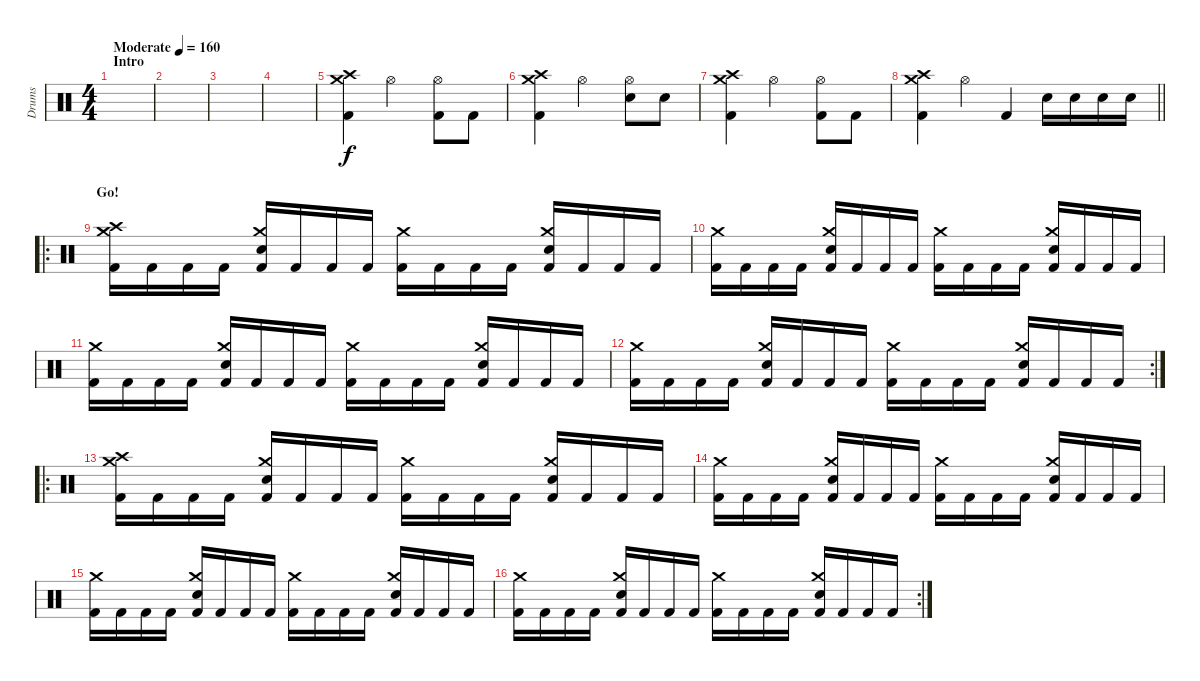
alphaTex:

\track ("Drums" "Drums") {instrument percussion}
\staff {score}
\articulation defaults
\ts (4 4)
\section ("" "Intro")
\tempo (160 "Moderate")
\clef neutral
\ks c
|
|
|
|
("Kick (hit) 2" "Crash high (hit)" "Crash medium (hit)").4 "Hi-Hat (open)".2 ("Kick (hit) 2" "Hi-Hat (open)").8 "Kick (hit) 2".8 |
("Kick (hit) 2" "Crash high (hit)" "Crash medium (hit)").4 "Hi-Hat (open)".2 ("Snare (hit) 2" "Hi-Hat (open)").8 "Snare (hit) 2".8 |
("Kick (hit) 2" "Crash high (hit)" "Crash medium (hit)").4 "Hi-Hat (open)".2 ("Kick (hit) 2" "Hi-Hat (open)").8 "Kick (hit) 2".8 |
\barLineRight lightlight
("Kick (hit) 2" "Crash high (hit)" "Crash medium (hit)").4 "Hi-Hat (open)".4 "Kick (hit) 2".4 "Snare (hit) 2".16 "Snare (hit) 2".16 "Snare (hit) 2".16 "Snare (hit) 2".16 |
\ro
\section ("" "Go!")
("Kick (hit) 2" "Crash high (hit)" "Crash medium (hit)").16 "Kick (hit) 2".16 "Kick (hit) 2".16 "Kick (hit) 2".16 ("Kick (hit) 2" "Snare (hit) 2" "Crash medium (hit)").16 "Kick (hit) 2".16 "Kick (hit) 2".16 "Kick (hit) 2".16 ("Kick (hit) 2" "Crash medium (hit)").16 "Kick (hit) 2".16 "Kick (hit) 2".16 "Kick (hit) 2".16 ("Kick (hit) 2" "Snare (hit) 2" "Crash medium (hit)").16 "Kick (hit) 2".16 "Kick (hit) 2".16 "Kick (hit) 2".16 |
("Kick (hit) 2" "Crash medium (hit)").16 "Kick (hit) 2".16 "Kick (hit) 2".16 "Kick (hit) 2".16 ("Kick (hit) 2" "Snare (hit) 2" "Crash medium (hit)").16 "Kick (hit) 2".16 "Kick (hit) 2".16 "Kick (hit) 2".16 ("Kick (hit) 2" "Crash medium (hit)").16 "Kick (hit) 2".16 "Kick (hit) 2".16 "Kick (hit) 2".16 ("Kick (hit) 2" "Snare (hit) 2" "Crash medium (hit)").16 "Kick (hit) 2".16 "Kick (hit) 2".16 "Kick (hit) 2".16 |
("Kick (hit) 2" "Crash medium (hit)").16 "Kick (hit) 2".16 "Kick (hit) 2".16 "Kick (hit) 2".16 ("Kick (hit) 2" "Snare (hit) 2" "Crash medium (hit)").16 "Kick (hit) 2".16 "Kick (hit) 2".16 "Kick (hit) 2".16 ("Kick (hit) 2" "Crash medium (hit)").16 "Kick (hit) 2".16 "Kick (hit) 2".16 "Kick (hit) 2".16 ("Kick (hit) 2" "Snare (hit) 2" "Crash medium (hit)").16 "Kick (hit) 2".16 "Kick (hit) 2".16 "Kick (hit) 2".16 |
\rc 2
("Kick (hit) 2" "Crash medium (hit)").16 "Kick (hit) 2".16 "Kick (hit) 2".16 "Kick (hit) 2".16 ("Kick (hit) 2" "Snare (hit) 2" "Crash medium (hit)").16 "Kick (hit) 2".16 "Kick (hit) 2".16 "Kick (hit) 2".16 ("Kick (hit) 2" "Crash medium (hit)").16 "Kick (hit) 2".16 "Kick (hit) 2".16 "Kick (hit) 2".16 ("Kick (hit) 2" "Snare (hit) 2" "Crash medium (hit)").16 "Kick (hit) 2".16 "Kick (hit) 2".16 "Kick (hit) 2".16 |
\ro
("Kick (hit) 2" "Crash high (hit)" "Crash medium (hit)").16 "Kick (hit) 2".16 "Kick (hit) 2".16 "Kick (hit) 2".16 ("Kick (hit) 2" "Snare (hit) 2" "Crash medium (hit)").16 "Kick (hit) 2".16 "Kick (hit) 2".16 "Kick (hit) 2".16 ("Kick (hit) 2" "Crash medium (hit)").16 "Kick (hit) 2".16 "Kick (hit) 2".16 "Kick (hit) 2".16 ("Kick (hit) 2" "Snare (hit) 2" "Crash medium (hit)").16 "Kick (hit) 2".16 "Kick (hit) 2".16 "Kick (hit) 2".16 |
("Kick (hit) 2" "Crash medium (hit)").16 "Kick (hit) 2".16 "Kick (hit) 2".16 "Kick (hit) 2".16 ("Kick (hit) 2" "Snare (hit) 2" "Crash medium (hit)").16 "Kick (hit) 2".16 "Kick (hit) 2".16 "Kick (hit) 2".16 ("Kick (hit) 2" "Crash medium (hit)").16 "Kick (hit) 2".16 "Kick (hit) 2".16 "Kick (hit) 2".16 ("Kick (hit) 2" "Snare (hit) 2" "Crash medium (hit)").16 "Kick (hit) 2".16 "Kick (hit) 2".16 "Kick (hit) 2".16 |
("Kick (hit) 2" "Crash medium (hit)").16 "Kick (hit) 2".16 "Kick (hit) 2".16 "Kick (hit) 2".16 ("Kick (hit) 2" "Snare (hit) 2" "Crash medium (hit)").16 "Kick (hit) 2".16 "Kick (hit) 2".16 "Kick (hit) 2".16 ("Kick (hit) 2" "Crash medium (hit)").16 "Kick (hit) 2".16 "Kick (hit) 2".16 "Kick (hit) 2".16 ("Kick (hit) 2" "Snare (hit) 2" "Crash medium (hit)").16 "Kick (hit) 2".16 "Kick (hit) 2".16 "Kick (hit) 2".16 |
\rc 2
("Kick (hit) 2" "Crash medium (hit)").16 "Kick (hit) 2".16 "Kick (hit) 2".16 "Kick (hit) 2".16 ("Kick (hit) 2" "Snare (hit) 2" "Crash medium (hit)").16 "Kick (hit) 2".16 "Kick (hit) 2".16 "Kick (hit) 2".16 ("Kick (hit) 2" "Crash medium (hit)").16 "Kick (hit) 2".16 "Kick (hit) 2".16 "Kick (hit) 2".16 ("Kick (hit) 2" "Snare (hit) 2" "Crash medium (hit)").16 "Kick (hit) 2".16 "Kick (hit) 2".16 "Kick (hit) 2".16
